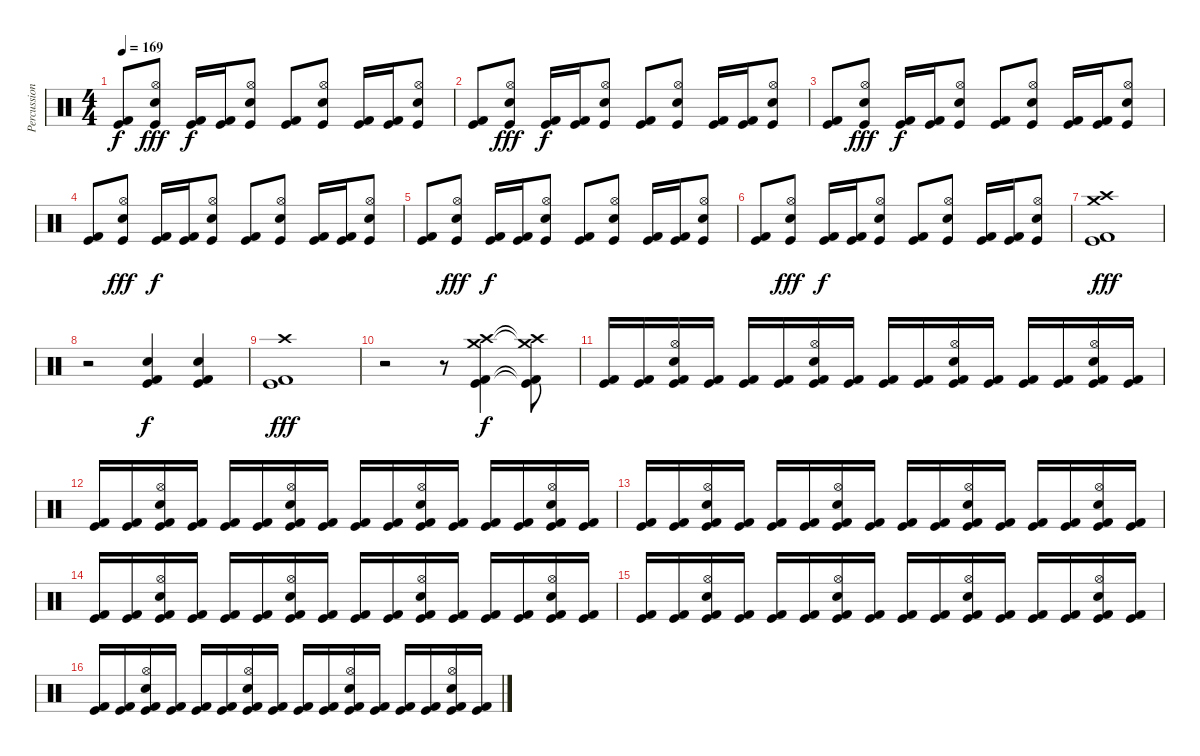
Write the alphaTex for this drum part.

\track ("Percussion" "Percussion") {instrument percussion}
\staff {score}
\articulation defaults
\ts (4 4)
\tempo 169
\clef neutral
\ks c
("Kick (hit) 2" "Kick (hit)").8{dy f} ("Hi-Hat (open)" "Electric Snare (hit)" "Kick (hit)").8{dy fff} ("Kick (hit) 2" "Kick (hit)").16{dy f} ("Kick (hit) 2" "Kick (hit)").16 ("Hi-Hat (open)" "Electric Snare (hit)" "Kick (hit)").8 ("Kick (hit) 2" "Kick (hit)").8 ("Hi-Hat (open)" "Electric Snare (hit)" "Kick (hit)").8 ("Kick (hit) 2" "Kick (hit)").16 ("Kick (hit) 2" "Kick (hit)").16 ("Hi-Hat (open)" "Electric Snare (hit)" "Kick (hit)").8 |
("Kick (hit) 2" "Kick (hit)").8 ("Hi-Hat (open)" "Electric Snare (hit)" "Kick (hit)").8{dy fff} ("Kick (hit) 2" "Kick (hit)").16{dy f} ("Kick (hit) 2" "Kick (hit)").16 ("Hi-Hat (open)" "Electric Snare (hit)" "Kick (hit)").8 ("Kick (hit) 2" "Kick (hit)").8 ("Hi-Hat (open)" "Electric Snare (hit)" "Kick (hit)").8 ("Kick (hit) 2" "Kick (hit)").16 ("Kick (hit) 2" "Kick (hit)").16 ("Hi-Hat (open)" "Electric Snare (hit)" "Kick (hit)").8 |
("Kick (hit) 2" "Kick (hit)").8 ("Hi-Hat (open)" "Electric Snare (hit)" "Kick (hit)").8{dy fff} ("Kick (hit) 2" "Kick (hit)").16{dy f} ("Kick (hit) 2" "Kick (hit)").16 ("Hi-Hat (open)" "Electric Snare (hit)" "Kick (hit)").8 ("Kick (hit) 2" "Kick (hit)").8 ("Hi-Hat (open)" "Electric Snare (hit)" "Kick (hit)").8 ("Kick (hit) 2" "Kick (hit)").16 ("Kick (hit) 2" "Kick (hit)").16 ("Hi-Hat (open)" "Electric Snare (hit)" "Kick (hit)").8 |
("Kick (hit) 2" "Kick (hit)").8 ("Hi-Hat (open)" "Electric Snare (hit)" "Kick (hit)").8{dy fff} ("Kick (hit) 2" "Kick (hit)").16{dy f} ("Kick (hit) 2" "Kick (hit)").16 ("Hi-Hat (open)" "Electric Snare (hit)" "Kick (hit)").8 ("Kick (hit) 2" "Kick (hit)").8 ("Hi-Hat (open)" "Electric Snare (hit)" "Kick (hit)").8 ("Kick (hit) 2" "Kick (hit)").16 ("Kick (hit) 2" "Kick (hit)").16 ("Hi-Hat (open)" "Electric Snare (hit)" "Kick (hit)").8 |
("Kick (hit) 2" "Kick (hit)").8 ("Hi-Hat (open)" "Electric Snare (hit)" "Kick (hit)").8{dy fff} ("Kick (hit) 2" "Kick (hit)").16{dy f} ("Kick (hit) 2" "Kick (hit)").16 ("Hi-Hat (open)" "Electric Snare (hit)" "Kick (hit)").8 ("Kick (hit) 2" "Kick (hit)").8 ("Hi-Hat (open)" "Electric Snare (hit)" "Kick (hit)").8 ("Kick (hit) 2" "Kick (hit)").16 ("Kick (hit) 2" "Kick (hit)").16 ("Hi-Hat (open)" "Electric Snare (hit)" "Kick (hit)").8 |
("Kick (hit) 2" "Kick (hit)").8 ("Hi-Hat (open)" "Electric Snare (hit)" "Kick (hit)").8{dy fff} ("Kick (hit) 2" "Kick (hit)").16{dy f} ("Kick (hit) 2" "Kick (hit)").16 ("Hi-Hat (open)" "Electric Snare (hit)" "Kick (hit)").8 ("Kick (hit) 2" "Kick (hit)").8 ("Hi-Hat (open)" "Electric Snare (hit)" "Kick (hit)").8 ("Kick (hit) 2" "Kick (hit)").16 ("Kick (hit) 2" "Kick (hit)").16 ("Hi-Hat (open)" "Electric Snare (hit)" "Kick (hit)").8 |
("Crash high (hit)" "Crash medium (hit)" "Kick (hit) 2" "Kick (hit)").1{dy fff} |
r.2 ("Electric Snare (hit)" "Kick (hit) 2" "Kick (hit)").4{dy f} ("Electric Snare (hit)" "Kick (hit) 2" "Kick (hit)").4 |
("Crash high (hit)" "Kick (hit) 2" "Kick (hit)").1{dy fff} |
r.2 r.8 ("Crash medium (hit)" "Crash high (hit)" "Kick (hit) 2" "Kick (hit)").4{dy f} ("Crash medium (hit)"{t} "Crash high (hit)"{t} "Kick (hit) 2"{t} "Kick (hit)"{t}).8 |
("Kick (hit) 2" "Kick (hit)").16 ("Kick (hit) 2" "Kick (hit)").16 ("Hi-Hat (open)" "Electric Snare (hit)" "Kick (hit) 2" "Kick (hit)").16 ("Kick (hit) 2" "Kick (hit)").16 ("Kick (hit) 2" "Kick (hit)").16 ("Kick (hit) 2" "Kick (hit)").16 ("Hi-Hat (open)" "Electric Snare (hit)" "Kick (hit) 2" "Kick (hit)").16 ("Kick (hit) 2" "Kick (hit)").16 ("Kick (hit) 2" "Kick (hit)").16 ("Kick (hit) 2" "Kick (hit)").16 ("Hi-Hat (open)" "Electric Snare (hit)" "Kick (hit) 2" "Kick (hit)").16 ("Kick (hit) 2" "Kick (hit)").16 ("Kick (hit) 2" "Kick (hit)").16 ("Kick (hit) 2" "Kick (hit)").16 ("Hi-Hat (open)" "Electric Snare (hit)" "Kick (hit) 2" "Kick (hit)").16 ("Kick (hit) 2" "Kick (hit)").16 |
("Kick (hit) 2" "Kick (hit)").16 ("Kick (hit) 2" "Kick (hit)").16 ("Hi-Hat (open)" "Electric Snare (hit)" "Kick (hit) 2" "Kick (hit)").16 ("Kick (hit) 2" "Kick (hit)").16 ("Kick (hit) 2" "Kick (hit)").16 ("Kick (hit) 2" "Kick (hit)").16 ("Hi-Hat (open)" "Electric Snare (hit)" "Kick (hit) 2" "Kick (hit)").16 ("Kick (hit) 2" "Kick (hit)").16 ("Kick (hit) 2" "Kick (hit)").16 ("Kick (hit) 2" "Kick (hit)").16 ("Hi-Hat (open)" "Electric Snare (hit)" "Kick (hit) 2" "Kick (hit)").16 ("Kick (hit) 2" "Kick (hit)").16 ("Kick (hit) 2" "Kick (hit)").16 ("Kick (hit) 2" "Kick (hit)").16 ("Hi-Hat (open)" "Electric Snare (hit)" "Kick (hit) 2" "Kick (hit)").16 ("Kick (hit) 2" "Kick (hit)").16 |
("Kick (hit) 2" "Kick (hit)").16 ("Kick (hit) 2" "Kick (hit)").16 ("Hi-Hat (open)" "Electric Snare (hit)" "Kick (hit) 2" "Kick (hit)").16 ("Kick (hit) 2" "Kick (hit)").16 ("Kick (hit) 2" "Kick (hit)").16 ("Kick (hit) 2" "Kick (hit)").16 ("Hi-Hat (open)" "Electric Snare (hit)" "Kick (hit) 2" "Kick (hit)").16 ("Kick (hit) 2" "Kick (hit)").16 ("Kick (hit) 2" "Kick (hit)").16 ("Kick (hit) 2" "Kick (hit)").16 ("Hi-Hat (open)" "Electric Snare (hit)" "Kick (hit) 2" "Kick (hit)").16 ("Kick (hit) 2" "Kick (hit)").16 ("Kick (hit) 2" "Kick (hit)").16 ("Kick (hit) 2" "Kick (hit)").16 ("Hi-Hat (open)" "Electric Snare (hit)" "Kick (hit) 2" "Kick (hit)").16 ("Kick (hit) 2" "Kick (hit)").16 |
("Kick (hit) 2" "Kick (hit)").16 ("Kick (hit) 2" "Kick (hit)").16 ("Hi-Hat (open)" "Electric Snare (hit)" "Kick (hit) 2" "Kick (hit)").16 ("Kick (hit) 2" "Kick (hit)").16 ("Kick (hit) 2" "Kick (hit)").16 ("Kick (hit) 2" "Kick (hit)").16 ("Hi-Hat (open)" "Electric Snare (hit)" "Kick (hit) 2" "Kick (hit)").16 ("Kick (hit) 2" "Kick (hit)").16 ("Kick (hit) 2" "Kick (hit)").16 ("Kick (hit) 2" "Kick (hit)").16 ("Hi-Hat (open)" "Electric Snare (hit)" "Kick (hit) 2" "Kick (hit)").16 ("Kick (hit) 2" "Kick (hit)").16 ("Kick (hit) 2" "Kick (hit)").16 ("Kick (hit) 2" "Kick (hit)").16 ("Hi-Hat (open)" "Electric Snare (hit)" "Kick (hit) 2" "Kick (hit)").16 ("Kick (hit) 2" "Kick (hit)").16 |
("Kick (hit) 2" "Kick (hit)").16 ("Kick (hit) 2" "Kick (hit)").16 ("Hi-Hat (open)" "Electric Snare (hit)" "Kick (hit) 2" "Kick (hit)").16 ("Kick (hit) 2" "Kick (hit)").16 ("Kick (hit) 2" "Kick (hit)").16 ("Kick (hit) 2" "Kick (hit)").16 ("Hi-Hat (open)" "Electric Snare (hit)" "Kick (hit) 2" "Kick (hit)").16 ("Kick (hit) 2" "Kick (hit)").16 ("Kick (hit) 2" "Kick (hit)").16 ("Kick (hit) 2" "Kick (hit)").16 ("Hi-Hat (open)" "Electric Snare (hit)" "Kick (hit) 2" "Kick (hit)").16 ("Kick (hit) 2" "Kick (hit)").16 ("Kick (hit) 2" "Kick (hit)").16 ("Kick (hit) 2" "Kick (hit)").16 ("Hi-Hat (open)" "Electric Snare (hit)" "Kick (hit) 2" "Kick (hit)").16 ("Kick (hit) 2" "Kick (hit)").16 |
("Kick (hit) 2" "Kick (hit)").16 ("Kick (hit) 2" "Kick (hit)").16 ("Hi-Hat (open)" "Electric Snare (hit)" "Kick (hit) 2" "Kick (hit)").16 ("Kick (hit) 2" "Kick (hit)").16 ("Kick (hit) 2" "Kick (hit)").16 ("Kick (hit) 2" "Kick (hit)").16 ("Hi-Hat (open)" "Electric Snare (hit)" "Kick (hit) 2" "Kick (hit)").16 ("Kick (hit) 2" "Kick (hit)").16 ("Kick (hit) 2" "Kick (hit)").16 ("Kick (hit) 2" "Kick (hit)").16 ("Hi-Hat (open)" "Electric Snare (hit)" "Kick (hit) 2" "Kick (hit)").16 ("Kick (hit) 2" "Kick (hit)").16 ("Kick (hit) 2" "Kick (hit)").16 ("Kick (hit) 2" "Kick (hit)").16 ("Hi-Hat (open)" "Electric Snare (hit)" "Kick (hit) 2" "Kick (hit)").16 ("Kick (hit) 2" "Kick (hit)").16
